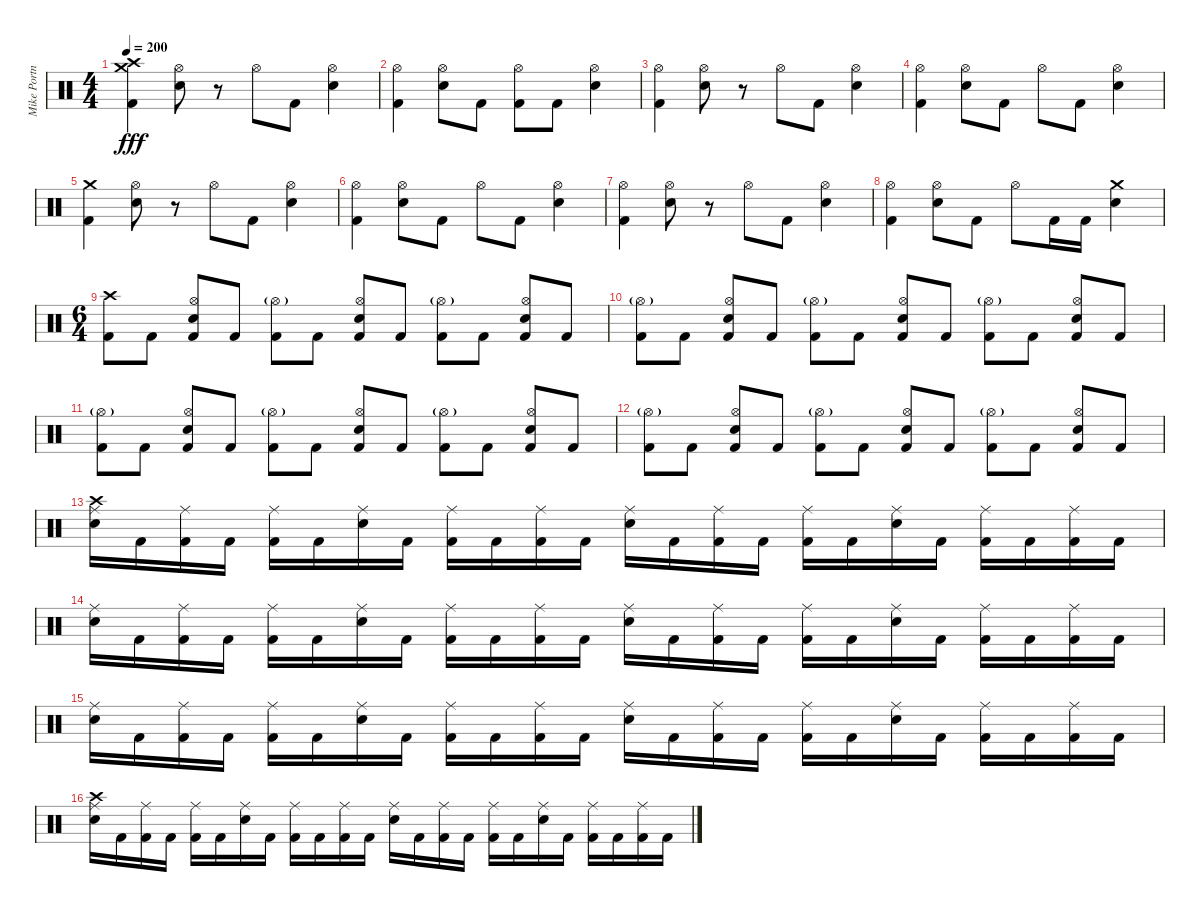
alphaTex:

\track ("Mike Portnoy" "Mike Portn") {instrument percussion}
\staff {score}
\articulation defaults
\ts (4 4)
\tempo 200
\clef neutral
\ks c
("Crash high (hit)" "Crash medium (hit)" "Kick (hit) 2").4{dy fff} ("Hi-Hat (open)" "Electric Snare (hit)").8 r.8 "Hi-Hat (open)".8 "Kick (hit) 2".8 ("Hi-Hat (open)" "Electric Snare (hit)").4 |
("Hi-Hat (open)" "Kick (hit) 2").4 ("Hi-Hat (open)" "Electric Snare (hit)").8 "Kick (hit) 2".8 ("Hi-Hat (open)" "Kick (hit) 2").8 "Kick (hit) 2".8 ("Hi-Hat (open)" "Electric Snare (hit)").4 |
("Hi-Hat (open)" "Kick (hit) 2").4 ("Hi-Hat (open)" "Electric Snare (hit)").8 r.8 "Hi-Hat (open)".8 "Kick (hit) 2".8 ("Hi-Hat (open)" "Electric Snare (hit)").4 |
("Hi-Hat (open)" "Kick (hit) 2").4 ("Hi-Hat (open)" "Electric Snare (hit)").8 "Kick (hit) 2".8 "Hi-Hat (open)".8 "Kick (hit) 2".8 ("Hi-Hat (open)" "Electric Snare (hit)").4 |
("Crash medium (hit)" "Kick (hit) 2").4 ("Hi-Hat (open)" "Electric Snare (hit)").8 r.8 "Hi-Hat (open)".8 "Kick (hit) 2".8 ("Hi-Hat (open)" "Electric Snare (hit)").4 |
("Hi-Hat (open)" "Kick (hit) 2").4 ("Hi-Hat (open)" "Electric Snare (hit)").8 "Kick (hit) 2".8 "Hi-Hat (open)".8 "Kick (hit) 2".8 ("Hi-Hat (open)" "Electric Snare (hit)").4 |
("Hi-Hat (open)" "Kick (hit) 2").4 ("Hi-Hat (open)" "Electric Snare (hit)").8 r.8 "Hi-Hat (open)".8 "Kick (hit) 2".8 ("Hi-Hat (open)" "Electric Snare (hit)").4 |
("Hi-Hat (open)" "Kick (hit) 2").4 ("Hi-Hat (open)" "Electric Snare (hit)").8 "Kick (hit) 2".8 "Hi-Hat (open)".8 "Kick (hit) 2".16 "Kick (hit) 2".16 ("Crash medium (hit)" "Electric Snare (hit)").4 |
\ts (6 4)
("Crash high (hit)" "Kick (hit) 2").8 "Kick (hit) 2".8 ("Hi-Hat (open)" "Electric Snare (hit)" "Kick (hit) 2").8 "Kick (hit) 2".8 ("Hi-Hat (open)"{g} "Kick (hit) 2").8 "Kick (hit) 2".8 ("Hi-Hat (open)" "Electric Snare (hit)" "Kick (hit) 2").8 "Kick (hit) 2".8 ("Hi-Hat (open)"{g} "Kick (hit) 2").8 "Kick (hit) 2".8 ("Hi-Hat (open)" "Electric Snare (hit)" "Kick (hit) 2").8 "Kick (hit) 2".8 |
("Hi-Hat (open)"{g} "Kick (hit) 2").8 "Kick (hit) 2".8 ("Hi-Hat (open)" "Electric Snare (hit)" "Kick (hit) 2").8 "Kick (hit) 2".8 ("Hi-Hat (open)"{g} "Kick (hit) 2").8 "Kick (hit) 2".8 ("Hi-Hat (open)" "Electric Snare (hit)" "Kick (hit) 2").8 "Kick (hit) 2".8 ("Hi-Hat (open)"{g} "Kick (hit) 2").8 "Kick (hit) 2".8 ("Hi-Hat (open)" "Electric Snare (hit)" "Kick (hit) 2").8 "Kick (hit) 2".8 |
("Hi-Hat (open)"{g} "Kick (hit) 2").8 "Kick (hit) 2".8 ("Hi-Hat (open)" "Electric Snare (hit)" "Kick (hit) 2").8 "Kick (hit) 2".8 ("Hi-Hat (open)"{g} "Kick (hit) 2").8 "Kick (hit) 2".8 ("Hi-Hat (open)" "Electric Snare (hit)" "Kick (hit) 2").8 "Kick (hit) 2".8 ("Hi-Hat (open)"{g} "Kick (hit) 2").8 "Kick (hit) 2".8 ("Hi-Hat (open)" "Electric Snare (hit)" "Kick (hit) 2").8 "Kick (hit) 2".8 |
("Hi-Hat (open)"{g} "Kick (hit) 2").8 "Kick (hit) 2".8 ("Hi-Hat (open)" "Electric Snare (hit)" "Kick (hit) 2").8 "Kick (hit) 2".8 ("Hi-Hat (open)"{g} "Kick (hit) 2").8 "Kick (hit) 2".8 ("Hi-Hat (open)" "Electric Snare (hit)" "Kick (hit) 2").8 "Kick (hit) 2".8 ("Hi-Hat (open)"{g} "Kick (hit) 2").8 "Kick (hit) 2".8 ("Hi-Hat (open)" "Electric Snare (hit)" "Kick (hit) 2").8 "Kick (hit) 2".8 |
("Crash high (hit)" "Ride (middle)" "Electric Snare (hit)").16 "Kick (hit) 2".16 ("Ride (middle)" "Kick (hit) 2").16 "Kick (hit) 2".16 ("Ride (middle)" "Kick (hit) 2").16 "Kick (hit) 2".16 ("Ride (middle)" "Electric Snare (hit)").16 "Kick (hit) 2".16 ("Ride (middle)" "Kick (hit) 2").16 "Kick (hit) 2".16 ("Ride (middle)" "Kick (hit) 2").16 "Kick (hit) 2".16 ("Ride (middle)" "Electric Snare (hit)").16 "Kick (hit) 2".16 ("Ride (middle)" "Kick (hit) 2").16 "Kick (hit) 2".16 ("Ride (middle)" "Kick (hit) 2").16 "Kick (hit) 2".16 ("Ride (middle)" "Electric Snare (hit)").16 "Kick (hit) 2".16 ("Ride (middle)" "Kick (hit) 2").16 "Kick (hit) 2".16 ("Ride (middle)" "Kick (hit) 2").16 "Kick (hit) 2".16 |
("Ride (middle)" "Electric Snare (hit)").16 "Kick (hit) 2".16 ("Ride (middle)" "Kick (hit) 2").16 "Kick (hit) 2".16 ("Ride (middle)" "Kick (hit) 2").16 "Kick (hit) 2".16 ("Ride (middle)" "Electric Snare (hit)").16 "Kick (hit) 2".16 ("Ride (middle)" "Kick (hit) 2").16 "Kick (hit) 2".16 ("Ride (middle)" "Kick (hit) 2").16 "Kick (hit) 2".16 ("Ride (middle)" "Electric Snare (hit)").16 "Kick (hit) 2".16 ("Ride (middle)" "Kick (hit) 2").16 "Kick (hit) 2".16 ("Ride (middle)" "Kick (hit) 2").16 "Kick (hit) 2".16 ("Ride (middle)" "Electric Snare (hit)").16 "Kick (hit) 2".16 ("Ride (middle)" "Kick (hit) 2").16 "Kick (hit) 2".16 ("Ride (middle)" "Kick (hit) 2").16 "Kick (hit) 2".16 |
("Ride (middle)" "Electric Snare (hit)").16 "Kick (hit) 2".16 ("Ride (middle)" "Kick (hit) 2").16 "Kick (hit) 2".16 ("Ride (middle)" "Kick (hit) 2").16 "Kick (hit) 2".16 ("Ride (middle)" "Electric Snare (hit)").16 "Kick (hit) 2".16 ("Ride (middle)" "Kick (hit) 2").16 "Kick (hit) 2".16 ("Ride (middle)" "Kick (hit) 2").16 "Kick (hit) 2".16 ("Ride (middle)" "Electric Snare (hit)").16 "Kick (hit) 2".16 ("Ride (middle)" "Kick (hit) 2").16 "Kick (hit) 2".16 ("Ride (middle)" "Kick (hit) 2").16 "Kick (hit) 2".16 ("Ride (middle)" "Electric Snare (hit)").16 "Kick (hit) 2".16 ("Ride (middle)" "Kick (hit) 2").16 "Kick (hit) 2".16 ("Ride (middle)" "Kick (hit) 2").16 "Kick (hit) 2".16 |
("Crash high (hit)" "Ride (middle)" "Electric Snare (hit)").16 "Kick (hit) 2".16 ("Ride (middle)" "Kick (hit) 2").16 "Kick (hit) 2".16 ("Ride (middle)" "Kick (hit) 2").16 "Kick (hit) 2".16 ("Ride (middle)" "Electric Snare (hit)").16 "Kick (hit) 2".16 ("Ride (middle)" "Kick (hit) 2").16 "Kick (hit) 2".16 ("Ride (middle)" "Kick (hit) 2").16 "Kick (hit) 2".16 ("Ride (middle)" "Electric Snare (hit)").16 "Kick (hit) 2".16 ("Ride (middle)" "Kick (hit) 2").16 "Kick (hit) 2".16 ("Ride (middle)" "Kick (hit) 2").16 "Kick (hit) 2".16 ("Ride (middle)" "Electric Snare (hit)").16 "Kick (hit) 2".16 ("Ride (middle)" "Kick (hit) 2").16 "Kick (hit) 2".16 ("Ride (middle)" "Kick (hit) 2").16 "Kick (hit) 2".16
